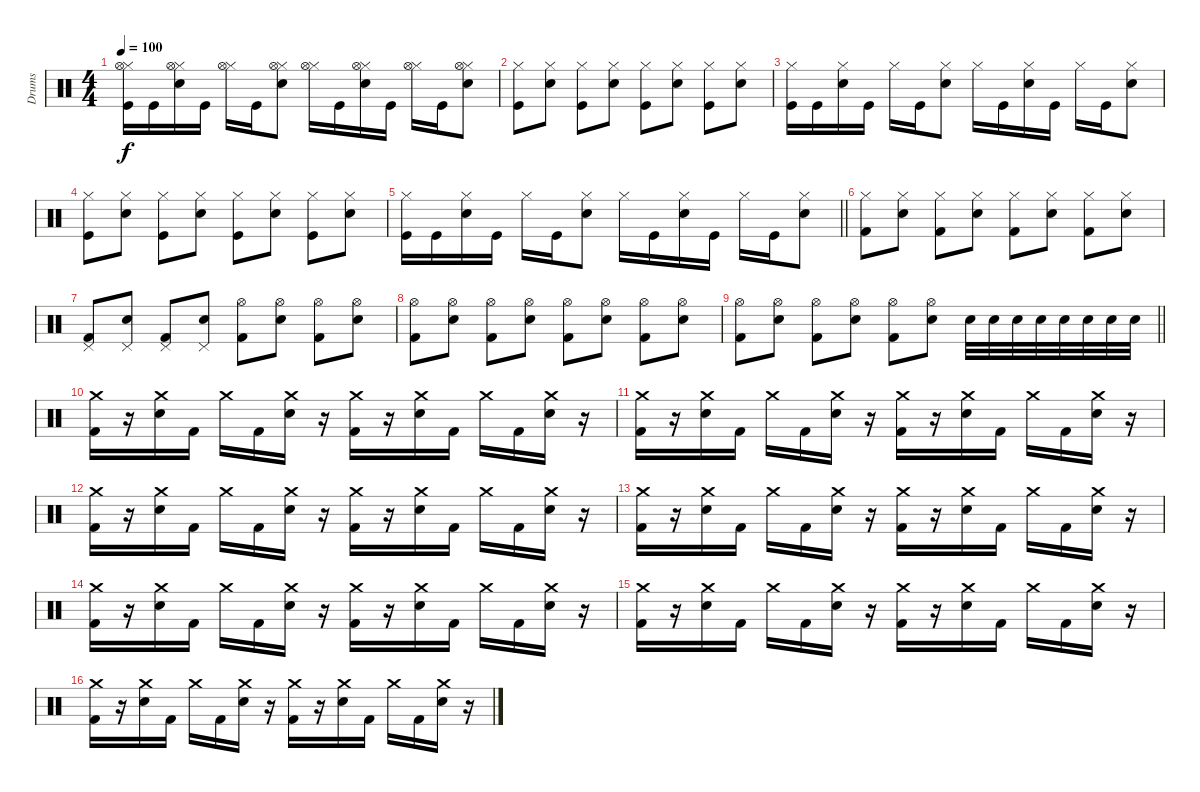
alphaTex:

\track ("Drums" "Drums") {instrument percussion}
\staff {score}
\articulation defaults
\ts (4 4)
\tempo 100
\clef neutral
\ks c
("Hi-Hat (closed)" "Hi-Hat (open)" "Kick (hit)").16{dy f} "Kick (hit)".16 ("Hi-Hat (closed)" "Hi-Hat (open)" "Snare (hit) 2").16 "Kick (hit)".16 ("Hi-Hat (closed)" "Hi-Hat (open)").16 "Kick (hit)".16 ("Hi-Hat (closed)" "Hi-Hat (open)" "Snare (hit) 2").8 ("Hi-Hat (closed)" "Hi-Hat (open)").16 "Kick (hit)".16 ("Hi-Hat (closed)" "Hi-Hat (open)" "Snare (hit) 2").16 "Kick (hit)".16 ("Hi-Hat (closed)" "Hi-Hat (open)").16 "Kick (hit)".16 ("Hi-Hat (closed)" "Hi-Hat (open)" "Snare (hit) 2").8 |
("Hi-Hat (closed)" "Kick (hit)").8 ("Hi-Hat (closed)" "Snare (hit) 2").8 ("Hi-Hat (closed)" "Kick (hit)").8 ("Hi-Hat (closed)" "Snare (hit) 2").8 ("Hi-Hat (closed)" "Kick (hit)").8 ("Hi-Hat (closed)" "Snare (hit) 2").8 ("Hi-Hat (closed)" "Kick (hit)").8 ("Hi-Hat (closed)" "Snare (hit) 2").8 |
("Hi-Hat (closed)" "Kick (hit)").16 "Kick (hit)".16 ("Hi-Hat (closed)" "Snare (hit) 2").16 "Kick (hit)".16 "Hi-Hat (closed)".16 "Kick (hit)".16 ("Hi-Hat (closed)" "Snare (hit) 2").8 "Hi-Hat (closed)".16 "Kick (hit)".16 ("Hi-Hat (closed)" "Snare (hit) 2").16 "Kick (hit)".16 "Hi-Hat (closed)".16 "Kick (hit)".16 ("Hi-Hat (closed)" "Snare (hit) 2").8 |
("Hi-Hat (closed)" "Kick (hit)").8 ("Hi-Hat (closed)" "Snare (hit) 2").8 ("Hi-Hat (closed)" "Kick (hit)").8 ("Hi-Hat (closed)" "Snare (hit) 2").8 ("Hi-Hat (closed)" "Kick (hit)").8 ("Hi-Hat (closed)" "Snare (hit) 2").8 ("Hi-Hat (closed)" "Kick (hit)").8 ("Hi-Hat (closed)" "Snare (hit) 2").8 |
\barLineRight lightlight
("Hi-Hat (closed)" "Kick (hit)").16 "Kick (hit)".16 ("Hi-Hat (closed)" "Snare (hit) 2").16 "Kick (hit)".16 "Hi-Hat (closed)".16 "Kick (hit)".16 ("Hi-Hat (closed)" "Snare (hit) 2").8 "Hi-Hat (closed)".16 "Kick (hit)".16 ("Hi-Hat (closed)" "Snare (hit) 2").16 "Kick (hit)".16 "Hi-Hat (closed)".16 "Kick (hit)".16 ("Hi-Hat (closed)" "Snare (hit) 2").8 |
\section ("" "")
("Hi-Hat (closed)" "Kick (hit) 2").8 ("Hi-Hat (closed)" "Snare (hit) 2").8 ("Hi-Hat (closed)" "Kick (hit) 2").8 ("Hi-Hat (closed)" "Snare (hit) 2").8 ("Hi-Hat (closed)" "Kick (hit) 2").8 ("Hi-Hat (closed)" "Snare (hit) 2").8 ("Hi-Hat (closed)" "Kick (hit) 2").8 ("Hi-Hat (closed)" "Snare (hit) 2").8 |
("Pedal Hi-Hat (hit)" "Kick (hit) 2").8 ("Pedal Hi-Hat (hit)" "Snare (hit) 2").8 ("Pedal Hi-Hat (hit)" "Kick (hit) 2").8 ("Pedal Hi-Hat (hit)" "Snare (hit) 2").8 ("Hi-Hat (open)" "Kick (hit) 2").8 ("Hi-Hat (open)" "Snare (hit) 2").8 ("Hi-Hat (open)" "Kick (hit) 2").8 ("Hi-Hat (open)" "Snare (hit) 2").8 |
("Hi-Hat (open)" "Kick (hit) 2").8 ("Hi-Hat (open)" "Snare (hit) 2").8 ("Hi-Hat (open)" "Kick (hit) 2").8 ("Hi-Hat (open)" "Snare (hit) 2").8 ("Hi-Hat (open)" "Kick (hit) 2").8 ("Hi-Hat (open)" "Snare (hit) 2").8 ("Hi-Hat (open)" "Kick (hit) 2").8 ("Hi-Hat (open)" "Snare (hit) 2").8 |
\barLineRight lightlight
("Hi-Hat (open)" "Kick (hit) 2").8 ("Hi-Hat (open)" "Snare (hit) 2").8 ("Hi-Hat (open)" "Kick (hit) 2").8 ("Hi-Hat (open)" "Snare (hit) 2").8 ("Hi-Hat (open)" "Kick (hit) 2").8 ("Hi-Hat (open)" "Snare (hit) 2").8 "Snare (hit) 2".32 "Snare (hit) 2".32 "Snare (hit) 2".32 "Snare (hit) 2".32 "Snare (hit) 2".32 "Snare (hit) 2".32 "Snare (hit) 2".32 "Snare (hit) 2".32 |
\section ("" "")
("Crash medium (hit)" "Kick (hit) 2").16 r.16 ("Crash medium (hit)" "Snare (hit) 2").16 "Kick (hit) 2".16 "Crash medium (hit)".16 "Kick (hit) 2".16 ("Crash medium (hit)" "Snare (hit) 2").16 r.16 ("Crash medium (hit)" "Kick (hit) 2").16 r.16 ("Crash medium (hit)" "Snare (hit) 2").16 "Kick (hit) 2".16 "Crash medium (hit)".16 "Kick (hit) 2".16 ("Crash medium (hit)" "Snare (hit) 2").16 r.16 |
("Crash medium (hit)" "Kick (hit) 2").16 r.16 ("Crash medium (hit)" "Snare (hit) 2").16 "Kick (hit) 2".16 "Crash medium (hit)".16 "Kick (hit) 2".16 ("Crash medium (hit)" "Snare (hit) 2").16 r.16 ("Crash medium (hit)" "Kick (hit) 2").16 r.16 ("Crash medium (hit)" "Snare (hit) 2").16 "Kick (hit) 2".16 "Crash medium (hit)".16 "Kick (hit) 2".16 ("Crash medium (hit)" "Snare (hit) 2").16 r.16 |
("Crash medium (hit)" "Kick (hit) 2").16 r.16 ("Crash medium (hit)" "Snare (hit) 2").16 "Kick (hit) 2".16 "Crash medium (hit)".16 "Kick (hit) 2".16 ("Crash medium (hit)" "Snare (hit) 2").16 r.16 ("Crash medium (hit)" "Kick (hit) 2").16 r.16 ("Crash medium (hit)" "Snare (hit) 2").16 "Kick (hit) 2".16 "Crash medium (hit)".16 "Kick (hit) 2".16 ("Crash medium (hit)" "Snare (hit) 2").16 r.16 |
("Crash medium (hit)" "Kick (hit) 2").16 r.16 ("Crash medium (hit)" "Snare (hit) 2").16 "Kick (hit) 2".16 "Crash medium (hit)".16 "Kick (hit) 2".16 ("Crash medium (hit)" "Snare (hit) 2").16 r.16 ("Crash medium (hit)" "Kick (hit) 2").16 r.16 ("Crash medium (hit)" "Snare (hit) 2").16 "Kick (hit) 2".16 "Crash medium (hit)".16 "Kick (hit) 2".16 ("Crash medium (hit)" "Snare (hit) 2").16 r.16 |
("Crash medium (hit)" "Kick (hit) 2").16 r.16 ("Crash medium (hit)" "Snare (hit) 2").16 "Kick (hit) 2".16 "Crash medium (hit)".16 "Kick (hit) 2".16 ("Crash medium (hit)" "Snare (hit) 2").16 r.16 ("Crash medium (hit)" "Kick (hit) 2").16 r.16 ("Crash medium (hit)" "Snare (hit) 2").16 "Kick (hit) 2".16 "Crash medium (hit)".16 "Kick (hit) 2".16 ("Crash medium (hit)" "Snare (hit) 2").16 r.16 |
("Crash medium (hit)" "Kick (hit) 2").16 r.16 ("Crash medium (hit)" "Snare (hit) 2").16 "Kick (hit) 2".16 "Crash medium (hit)".16 "Kick (hit) 2".16 ("Crash medium (hit)" "Snare (hit) 2").16 r.16 ("Crash medium (hit)" "Kick (hit) 2").16 r.16 ("Crash medium (hit)" "Snare (hit) 2").16 "Kick (hit) 2".16 "Crash medium (hit)".16 "Kick (hit) 2".16 ("Crash medium (hit)" "Snare (hit) 2").16 r.16 |
("Crash medium (hit)" "Kick (hit) 2").16 r.16 ("Crash medium (hit)" "Snare (hit) 2").16 "Kick (hit) 2".16 "Crash medium (hit)".16 "Kick (hit) 2".16 ("Crash medium (hit)" "Snare (hit) 2").16 r.16 ("Crash medium (hit)" "Kick (hit) 2").16 r.16 ("Crash medium (hit)" "Snare (hit) 2").16 "Kick (hit) 2".16 "Crash medium (hit)".16 "Kick (hit) 2".16 ("Crash medium (hit)" "Snare (hit) 2").16 r.16
